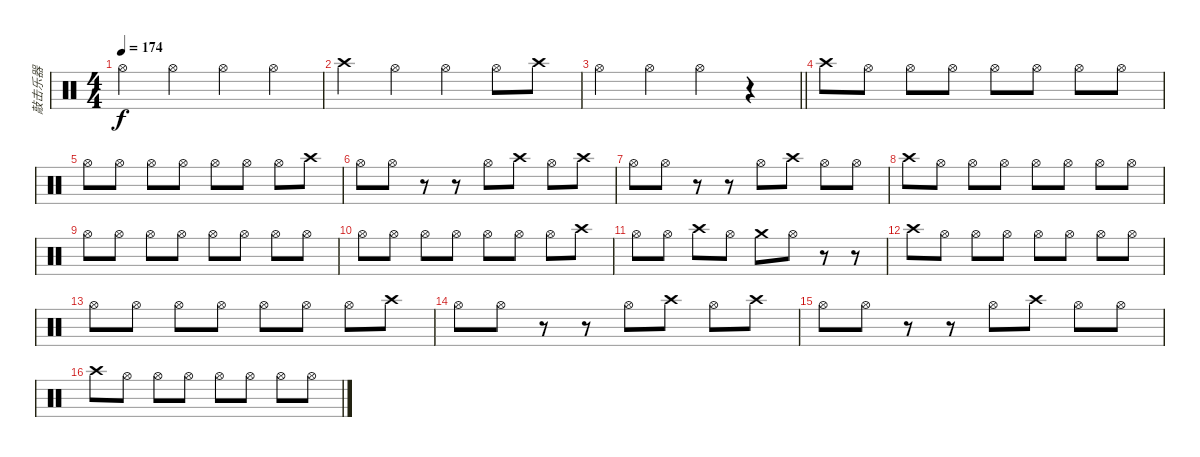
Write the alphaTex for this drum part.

\track ("敲击乐器" "敲击乐器") {instrument percussion}
\staff {score}
\articulation defaults
\ts (4 4)
\tempo 174
\clef neutral
\ks c "Hi-Hat (open)".4{dy f} "Hi-Hat (open)".4 "Hi-Hat (open)".4 "Hi-Hat (open)".4
|
"Crash high (hit)".4 "Hi-Hat (open)".4 "Hi-Hat (open)".4 "Hi-Hat (open)".8 "Crash high (hit)".8 |
\barLineRight lightlight "Hi-Hat (open)".4 "Hi-Hat (open)".4 "Hi-Hat (open)".4
r.4 |
"Crash high (hit)".8 "Hi-Hat (open)".8 "Hi-Hat (open)".8 "Hi-Hat (open)".8 "Hi-Hat (open)".8 "Hi-Hat (open)".8 "Hi-Hat (open)".8 "Hi-Hat (open)".8 |
"Hi-Hat (open)".8 "Hi-Hat (open)".8 "Hi-Hat (open)".8 "Hi-Hat (open)".8 "Hi-Hat (open)".8 "Hi-Hat (open)".8 "Hi-Hat (open)".8 "Crash high (hit)".8 |
"Hi-Hat (open)".8 "Hi-Hat (open)".8 r.8 r.8 "Hi-Hat (open)".8 "Crash high (hit)".8 "Hi-Hat (open)".8 "Crash high (hit)".8 |
"Hi-Hat (open)".8 "Hi-Hat (open)".8 r.8 r.8 "Hi-Hat (open)".8 "Crash high (hit)".8 "Hi-Hat (open)".8 "Hi-Hat (open)".8 |
"Crash high (hit)".8 "Hi-Hat (open)".8 "Hi-Hat (open)".8 "Hi-Hat (open)".8 "Hi-Hat (open)".8 "Hi-Hat (open)".8 "Hi-Hat (open)".8 "Hi-Hat (open)".8 |
"Hi-Hat (open)".8 "Hi-Hat (open)".8 "Hi-Hat (open)".8 "Hi-Hat (open)".8 "Hi-Hat (open)".8 "Hi-Hat (open)".8 "Hi-Hat (open)".8 "Hi-Hat (open)".8 |
"Hi-Hat (open)".8 "Hi-Hat (open)".8 "Hi-Hat (open)".8 "Hi-Hat (open)".8 "Hi-Hat (open)".8 "Hi-Hat (open)".8 "Hi-Hat (open)".8 "Crash high (hit)".8 |
"Hi-Hat (open)".8 "Hi-Hat (open)".8 "Crash high (hit)".8 "Hi-Hat (open)".8 "Crash medium (hit)".8 "Hi-Hat (open)".8 r.8 r.8 |
"Crash high (hit)".8 "Hi-Hat (open)".8 "Hi-Hat (open)".8 "Hi-Hat (open)".8 "Hi-Hat (open)".8 "Hi-Hat (open)".8 "Hi-Hat (open)".8 "Hi-Hat (open)".8 |
"Hi-Hat (open)".8 "Hi-Hat (open)".8 "Hi-Hat (open)".8 "Hi-Hat (open)".8 "Hi-Hat (open)".8 "Hi-Hat (open)".8 "Hi-Hat (open)".8 "Crash high (hit)".8 |
"Hi-Hat (open)".8 "Hi-Hat (open)".8 r.8 r.8 "Hi-Hat (open)".8 "Crash high (hit)".8 "Hi-Hat (open)".8 "Crash high (hit)".8 |
"Hi-Hat (open)".8 "Hi-Hat (open)".8 r.8 r.8 "Hi-Hat (open)".8 "Crash high (hit)".8 "Hi-Hat (open)".8 "Hi-Hat (open)".8 |
"Crash high (hit)".8 "Hi-Hat (open)".8 "Hi-Hat (open)".8 "Hi-Hat (open)".8 "Hi-Hat (open)".8 "Hi-Hat (open)".8 "Hi-Hat (open)".8 "Hi-Hat (open)".8
